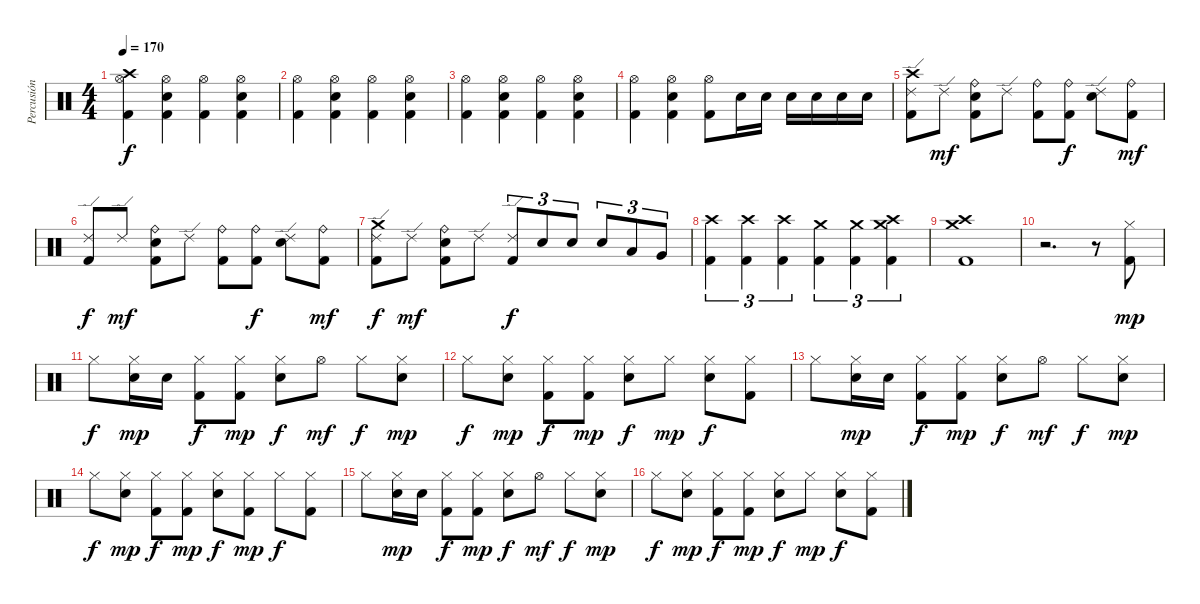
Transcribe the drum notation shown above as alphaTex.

\track ("Percusión" "Percusión") {instrument percussion}
\staff {score}
\articulation defaults
\ts (4 4)
\tempo 170
\clef neutral
\ks c
("Crash high (hit)" "Hi-Hat (open)" "Kick (hit) 2").4{dy f} ("Hi-Hat (open)" "Electric Snare (hit)" "Kick (hit) 2").4 ("Hi-Hat (open)" "Kick (hit) 2").4 ("Hi-Hat (open)" "Electric Snare (hit)" "Kick (hit) 2").4 |
("Hi-Hat (open)" "Kick (hit) 2").4 ("Hi-Hat (open)" "Electric Snare (hit)" "Kick (hit) 2").4 ("Hi-Hat (open)" "Kick (hit) 2").4 ("Hi-Hat (open)" "Electric Snare (hit)" "Kick (hit) 2").4 |
("Hi-Hat (open)" "Kick (hit) 2").4 ("Hi-Hat (open)" "Electric Snare (hit)" "Kick (hit) 2").4 ("Hi-Hat (open)" "Kick (hit) 2").4 ("Hi-Hat (open)" "Electric Snare (hit)" "Kick (hit) 2").4 |
("Hi-Hat (open)" "Kick (hit) 2").4 ("Hi-Hat (open)" "Electric Snare (hit)" "Kick (hit) 2").4 ("Hi-Hat (open)" "Kick (hit) 2").8 "Electric Snare (hit)".16 "Electric Snare (hit)".16 "Electric Snare (hit)".16 "Electric Snare (hit)".16 "Electric Snare (hit)".16 "Electric Snare (hit)".16 |
("Crash high (hit)" "Ride (edge) 2" "Kick (hit) 2").8 "Ride (edge) 2".8{dy mf} ("Ride (bell)" "Electric Snare (hit)" "Kick (hit) 2").8 "Ride (edge) 2".8 ("Ride (bell)" "Kick (hit) 2").8 ("Ride (bell)" "Kick (hit) 2").8{dy f} ("Ride (edge) 2" "Electric Snare (hit)").8 ("Ride (bell)" "Kick (hit) 2").8{dy mf} |
("Ride (edge) 2" "Kick (hit) 2").8{dy f} "Ride (edge) 2".8{dy mf} ("Ride (bell)" "Electric Snare (hit)" "Kick (hit) 2").8 "Ride (edge) 2".8 ("Ride (bell)" "Kick (hit) 2").8 ("Ride (bell)" "Kick (hit) 2").8{dy f} ("Ride (edge) 2" "Electric Snare (hit)").8 ("Ride (bell)" "Kick (hit) 2").8{dy mf} |
("Crash medium (hit)" "Ride (edge) 2" "Kick (hit) 2").8{dy f} "Ride (edge) 2".8{dy mf} ("Ride (bell)" "Electric Snare (hit)" "Kick (hit) 2").8 "Ride (edge) 2".8 ("Ride (edge) 2" "Kick (hit) 2").8{tu (3 2) dy f} "Electric Snare (hit)".8{tu (3 2)} "Electric Snare (hit)".8{tu (3 2)} "Electric Snare (hit)".8{tu (3 2)} "Low Tom (hit)".8{tu (3 2)} "Very Low Tom (hit)".8{tu (3 2)} |
("Crash high (hit)" "Kick (hit) 2").4{tu (3 2)} ("Crash high (hit)" "Kick (hit) 2").4{tu (3 2)} ("Crash high (hit)" "Kick (hit) 2").4{tu (3 2)} ("Crash medium (hit)" "Kick (hit) 2").4{tu (3 2)} ("Crash medium (hit)" "Kick (hit) 2").4{tu (3 2)} ("Crash medium (hit)" "Crash high (hit)" "Kick (hit) 2").4{tu (3 2)} |
("Crash medium (hit)" "Crash high (hit)" "Kick (hit) 2").1 |
r.2{d} r.8 ("Hi-Hat (closed)" "Kick (hit) 2").8{dy mp} |
"Hi-Hat (closed)".8{dy f} ("Hi-Hat (closed)" "Electric Snare (hit)").16{dy mp} "Electric Snare (hit)".16 ("Hi-Hat (closed)" "Kick (hit) 2").8{dy f} ("Hi-Hat (closed)" "Kick (hit) 2").8{dy mp} ("Hi-Hat (closed)" "Electric Snare (hit)").8{dy f} "Hi-Hat (open)".8{dy mf} "Hi-Hat (closed)".8{dy f} ("Hi-Hat (closed)" "Electric Snare (hit)").8{dy mp} |
"Hi-Hat (closed)".8{dy f} ("Hi-Hat (closed)" "Electric Snare (hit)").8{dy mp} ("Hi-Hat (closed)" "Kick (hit) 2").8{dy f} ("Hi-Hat (closed)" "Kick (hit) 2").8{dy mp} ("Hi-Hat (closed)" "Electric Snare (hit)").8{dy f} "Hi-Hat (closed)".8{dy mp} ("Hi-Hat (closed)" "Electric Snare (hit)").8{dy f} ("Hi-Hat (closed)" "Kick (hit) 2").8 |
"Hi-Hat (closed)".8 ("Hi-Hat (closed)" "Electric Snare (hit)").16{dy mp} "Electric Snare (hit)".16 ("Hi-Hat (closed)" "Kick (hit) 2").8{dy f} ("Hi-Hat (closed)" "Kick (hit) 2").8{dy mp} ("Hi-Hat (closed)" "Electric Snare (hit)").8{dy f} "Hi-Hat (open)".8{dy mf} "Hi-Hat (closed)".8{dy f} ("Hi-Hat (closed)" "Electric Snare (hit)").8{dy mp} |
"Hi-Hat (closed)".8{dy f} ("Hi-Hat (closed)" "Electric Snare (hit)").8{dy mp} ("Hi-Hat (closed)" "Kick (hit) 2").8{dy f} ("Hi-Hat (closed)" "Kick (hit) 2").8{dy mp} ("Hi-Hat (closed)" "Electric Snare (hit)").8{dy f} ("Hi-Hat (closed)" "Kick (hit) 2").8{dy mp} "Hi-Hat (closed)".8{dy f} ("Hi-Hat (closed)" "Kick (hit) 2").8 |
"Hi-Hat (closed)".8 ("Hi-Hat (closed)" "Electric Snare (hit)").16{dy mp} "Electric Snare (hit)".16 ("Hi-Hat (closed)" "Kick (hit) 2").8{dy f} ("Hi-Hat (closed)" "Kick (hit) 2").8{dy mp} ("Hi-Hat (closed)" "Electric Snare (hit)").8{dy f} "Hi-Hat (open)".8{dy mf} "Hi-Hat (closed)".8{dy f} ("Hi-Hat (closed)" "Electric Snare (hit)").8{dy mp} |
"Hi-Hat (closed)".8{dy f} ("Hi-Hat (closed)" "Electric Snare (hit)").8{dy mp} ("Hi-Hat (closed)" "Kick (hit) 2").8{dy f} ("Hi-Hat (closed)" "Kick (hit) 2").8{dy mp} ("Hi-Hat (closed)" "Electric Snare (hit)").8{dy f} "Hi-Hat (closed)".8{dy mp} ("Hi-Hat (closed)" "Electric Snare (hit)").8{dy f} ("Hi-Hat (closed)" "Kick (hit) 2").8
